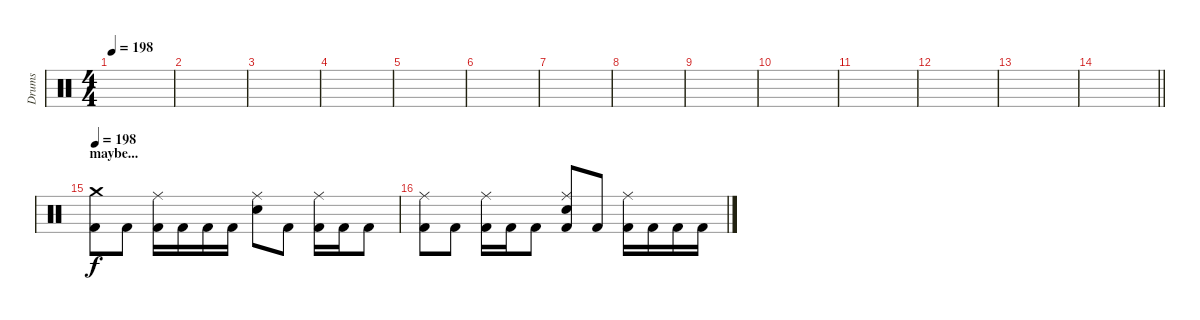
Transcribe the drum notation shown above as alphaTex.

\track ("Drums" "Drums") {instrument percussion}
\staff {score}
\articulation defaults
\ts (4 4)
\tempo 198
\clef neutral
\ks c
|
|
|
|
|
|
|
|
|
|
|
|
|
\barLineRight lightlight
|
\section ("" "maybe...")
\tempo 198
("Crash medium (hit)" "Kick (hit) 2").8 "Kick (hit) 2".8 ("Ride (middle)" "Kick (hit) 2").16 "Kick (hit) 2".16 "Kick (hit) 2".16 "Kick (hit) 2".16 ("Ride (middle)" "Snare (hit) 2").8 "Kick (hit) 2".8 ("Ride (middle)" "Kick (hit) 2").16 "Kick (hit) 2".16 "Kick (hit) 2".8 |
("Ride (middle)" "Kick (hit) 2").8 "Kick (hit) 2".8 ("Ride (middle)" "Kick (hit) 2").16 "Kick (hit) 2".16 "Kick (hit) 2".8 ("Ride (middle)" "Snare (hit) 2" "Kick (hit) 2").8 "Kick (hit) 2".8 ("Ride (middle)" "Kick (hit) 2").16 "Kick (hit) 2".16 "Kick (hit) 2".16 "Kick (hit) 2".16
